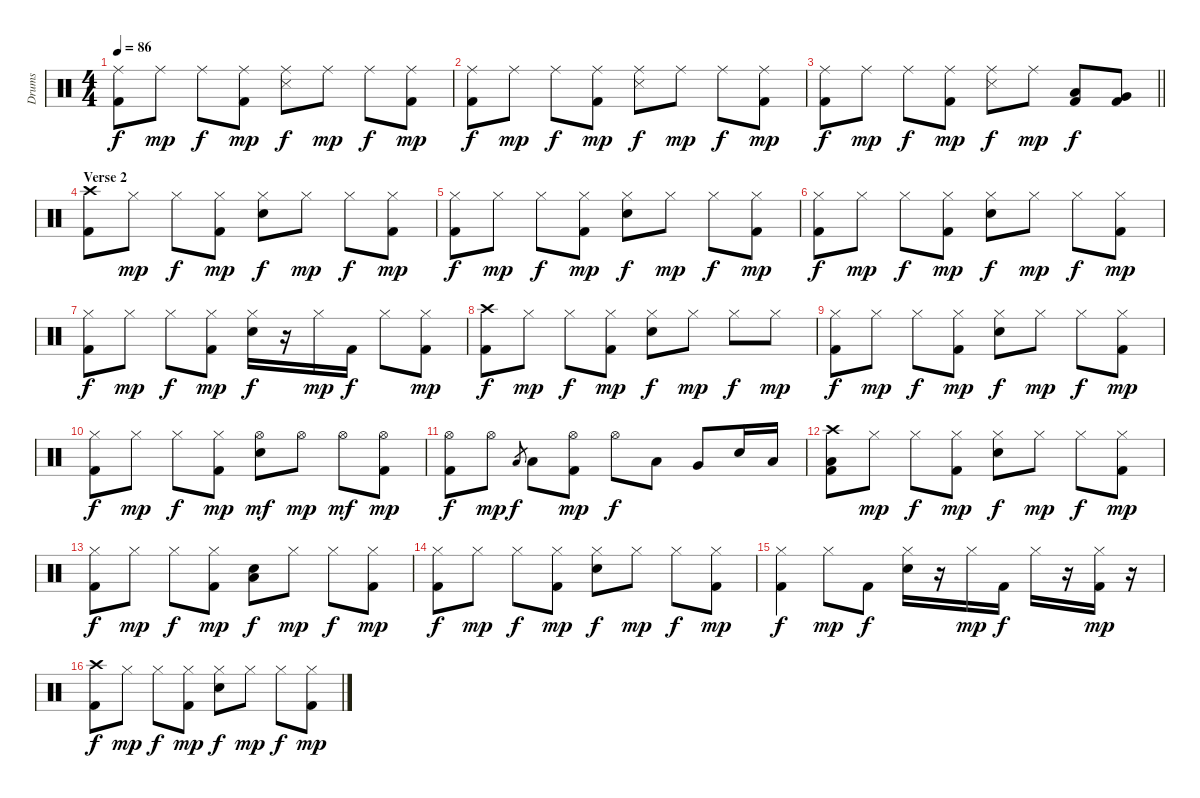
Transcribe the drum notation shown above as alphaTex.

\track ("Drums" "Drums") {instrument percussion}
\staff {score}
\articulation defaults
\ts (4 4)
\tempo 86
\clef neutral
\ks c
("Kick (hit) 2" "Ride (middle)").8{dy f} "Ride (middle)".8{dy mp} "Ride (middle)".8{dy f} ("Kick (hit) 2" "Ride (middle)").8{dy mp} ("Ride (middle)" "Snare (side stick) 3").8{dy f} "Ride (middle)".8{dy mp} "Ride (middle)".8{dy f} ("Kick (hit) 2" "Ride (middle)").8{dy mp} |
("Kick (hit) 2" "Ride (middle)").8{dy f} "Ride (middle)".8{dy mp} "Ride (middle)".8{dy f} ("Kick (hit) 2" "Ride (middle)").8{dy mp} ("Ride (middle)" "Snare (side stick) 3").8{dy f} "Ride (middle)".8{dy mp} "Ride (middle)".8{dy f} ("Kick (hit) 2" "Ride (middle)").8{dy mp} |
\barLineRight lightlight
("Kick (hit) 2" "Ride (middle)").8{dy f} "Ride (middle)".8{dy mp} "Ride (middle)".8{dy f} ("Kick (hit) 2" "Ride (middle)").8{dy mp} ("Ride (middle)" "Snare (side stick) 3").8{dy f} "Ride (middle)".8{dy mp} ("Kick (hit) 2" "Low Tom (hit)").8{dy f} ("Kick (hit) 2" "Very Low Tom (hit)").8 |
\section ("" "Verse 2")
("Kick (hit) 2" "Crash high (hit)").8 "Hi-Hat (closed)".8{dy mp} "Hi-Hat (closed)".8{dy f} ("Kick (hit) 2" "Hi-Hat (closed)").8{dy mp} ("Hi-Hat (closed)" "Electric Snare (hit)").8{dy f} "Hi-Hat (closed)".8{dy mp} "Hi-Hat (closed)".8{dy f} ("Kick (hit) 2" "Hi-Hat (closed)").8{dy mp} |
("Kick (hit) 2" "Hi-Hat (closed)").8{dy f} "Hi-Hat (closed)".8{dy mp} "Hi-Hat (closed)".8{dy f} ("Kick (hit) 2" "Hi-Hat (closed)").8{dy mp} ("Hi-Hat (closed)" "Electric Snare (hit)").8{dy f} "Hi-Hat (closed)".8{dy mp} "Hi-Hat (closed)".8{dy f} ("Kick (hit) 2" "Hi-Hat (closed)").8{dy mp} |
("Kick (hit) 2" "Hi-Hat (closed)").8{dy f} "Hi-Hat (closed)".8{dy mp} "Hi-Hat (closed)".8{dy f} ("Kick (hit) 2" "Hi-Hat (closed)").8{dy mp} ("Hi-Hat (closed)" "Electric Snare (hit)").8{dy f} "Hi-Hat (closed)".8{dy mp} "Hi-Hat (closed)".8{dy f} ("Kick (hit) 2" "Hi-Hat (closed)").8{dy mp} |
("Kick (hit) 2" "Hi-Hat (closed)").8{dy f} "Hi-Hat (closed)".8{dy mp} "Hi-Hat (closed)".8{dy f} ("Kick (hit) 2" "Hi-Hat (closed)").8{dy mp} ("Hi-Hat (closed)" "Electric Snare (hit)").16{dy f} r.16 "Hi-Hat (closed)".16{dy mp} "Kick (hit) 2".16{dy f} "Hi-Hat (closed)".8 ("Kick (hit) 2" "Hi-Hat (closed)").8{dy mp} |
("Kick (hit) 2" "Crash high (hit)").8{dy f} "Hi-Hat (closed)".8{dy mp} "Hi-Hat (closed)".8{dy f} ("Kick (hit) 2" "Hi-Hat (closed)").8{dy mp} ("Hi-Hat (closed)" "Electric Snare (hit)").8{dy f} "Hi-Hat (closed)".8{dy mp} "Hi-Hat (closed)".8{dy f} "Hi-Hat (closed)".8{dy mp} |
("Kick (hit) 2" "Hi-Hat (closed)").8{dy f} "Hi-Hat (closed)".8{dy mp} "Hi-Hat (closed)".8{dy f} ("Kick (hit) 2" "Hi-Hat (closed)").8{dy mp} ("Hi-Hat (closed)" "Electric Snare (hit)").8{dy f} "Hi-Hat (closed)".8{dy mp} "Hi-Hat (closed)".8{dy f} ("Kick (hit) 2" "Hi-Hat (closed)").8{dy mp} |
("Kick (hit) 2" "Hi-Hat (closed)").8{dy f} "Hi-Hat (closed)".8{dy mp} "Hi-Hat (closed)".8{dy f} ("Kick (hit) 2" "Hi-Hat (closed)").8{dy mp} ("Hi-Hat (open)" "Electric Snare (hit)").8{dy mf} "Hi-Hat (open)".8{dy mp} "Hi-Hat (open)".8{dy mf} ("Kick (hit) 2" "Hi-Hat (open)").8{dy mp} |
("Kick (hit) 2" "Hi-Hat (open)").8{dy f} "Hi-Hat (open)".8{dy mp} "Low Tom (hit)".8{gr dy f} "Low Tom (hit)".8 ("Kick (hit) 2" "Hi-Hat (open)").8{dy mp} "Hi-Hat (open)".8{dy f} "Low Tom (hit)".8 "Very Low Tom (hit)".8 "Electric Snare (hit)".16 "Low Tom (hit)".16 |
("Kick (hit) 2" "Low Floor Tom (hit)" "Crash high (hit)").8 "Hi-Hat (closed)".8{dy mp} "Hi-Hat (closed)".8{dy f} ("Kick (hit) 2" "Hi-Hat (closed)").8{dy mp} ("Hi-Hat (closed)" "Electric Snare (hit)").8{dy f} "Hi-Hat (closed)".8{dy mp} "Hi-Hat (closed)".8{dy f} ("Kick (hit) 2" "Hi-Hat (closed)").8{dy mp} |
("Kick (hit) 2" "Hi-Hat (closed)").8{dy f} "Hi-Hat (closed)".8{dy mp} "Hi-Hat (closed)".8{dy f} ("Kick (hit) 2" "Hi-Hat (closed)").8{dy mp} ("Electric Snare (hit)" "Low Floor Tom (hit)").8{dy f} "Hi-Hat (closed)".8{dy mp} "Hi-Hat (closed)".8{dy f} ("Kick (hit) 2" "Hi-Hat (closed)").8{dy mp} |
("Kick (hit) 2" "Hi-Hat (closed)").8{dy f} "Hi-Hat (closed)".8{dy mp} "Hi-Hat (closed)".8{dy f} ("Kick (hit) 2" "Hi-Hat (closed)").8{dy mp} ("Hi-Hat (closed)" "Electric Snare (hit)").8{dy f} "Hi-Hat (closed)".8{dy mp} "Hi-Hat (closed)".8{dy f} ("Kick (hit) 2" "Hi-Hat (closed)").8{dy mp} |
("Kick (hit) 2" "Hi-Hat (closed)").4{dy f} "Hi-Hat (closed)".8{dy mp} "Kick (hit) 2".8{dy f} ("Hi-Hat (closed)" "Electric Snare (hit)").16 r.16 "Hi-Hat (closed)".16{dy mp} "Kick (hit) 2".16{dy f} "Hi-Hat (closed)".16 r.16 ("Kick (hit) 2" "Hi-Hat (closed)").16{dy mp} r.16 |
("Kick (hit) 2" "Crash high (hit)").8{dy f} "Hi-Hat (closed)".8{dy mp} "Hi-Hat (closed)".8{dy f} ("Kick (hit) 2" "Hi-Hat (closed)").8{dy mp} ("Hi-Hat (closed)" "Electric Snare (hit)").8{dy f} "Hi-Hat (closed)".8{dy mp} "Hi-Hat (closed)".8{dy f} ("Kick (hit) 2" "Hi-Hat (closed)").8{dy mp}
